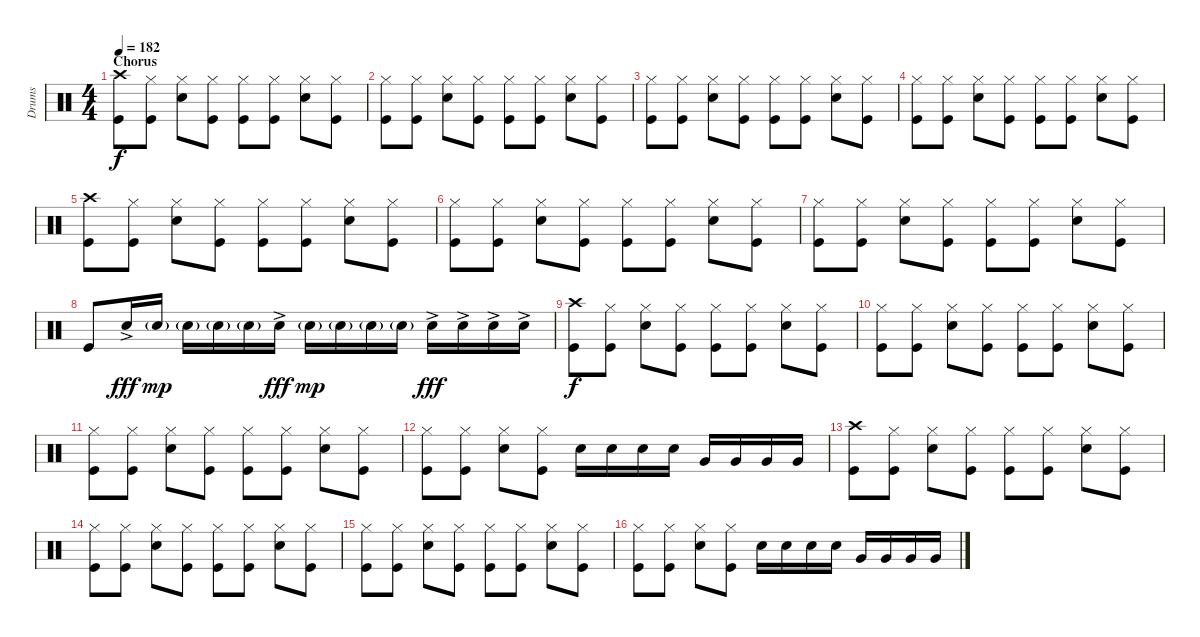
\track ("Drums" "Drums") {instrument percussion}
\staff {score}
\articulation defaults
\ts (4 4)
\section ("" "Chorus")
\tempo 182
\clef neutral
\ks c
("Crash high (hit)" "Kick (hit)").8{dy f} ("Hi-Hat (closed)" "Kick (hit)").8 ("Hi-Hat (closed)" "Snare (hit) 2").8 ("Hi-Hat (closed)" "Kick (hit)").8 ("Hi-Hat (closed)" "Kick (hit)").8 ("Hi-Hat (closed)" "Kick (hit)").8 ("Hi-Hat (closed)" "Snare (hit) 2").8 ("Hi-Hat (closed)" "Kick (hit)").8 |
("Hi-Hat (closed)" "Kick (hit)").8 ("Hi-Hat (closed)" "Kick (hit)").8 ("Hi-Hat (closed)" "Snare (hit) 2").8 ("Hi-Hat (closed)" "Kick (hit)").8 ("Hi-Hat (closed)" "Kick (hit)").8 ("Hi-Hat (closed)" "Kick (hit)").8 ("Hi-Hat (closed)" "Snare (hit) 2").8 ("Hi-Hat (closed)" "Kick (hit)").8 |
("Hi-Hat (closed)" "Kick (hit)").8 ("Hi-Hat (closed)" "Kick (hit)").8 ("Hi-Hat (closed)" "Snare (hit) 2").8 ("Hi-Hat (closed)" "Kick (hit)").8 ("Hi-Hat (closed)" "Kick (hit)").8 ("Hi-Hat (closed)" "Kick (hit)").8 ("Hi-Hat (closed)" "Snare (hit) 2").8 ("Hi-Hat (closed)" "Kick (hit)").8 |
("Hi-Hat (closed)" "Kick (hit)").8 ("Hi-Hat (closed)" "Kick (hit)").8 ("Hi-Hat (closed)" "Snare (hit) 2").8 ("Hi-Hat (closed)" "Kick (hit)").8 ("Hi-Hat (closed)" "Kick (hit)").8 ("Hi-Hat (closed)" "Kick (hit)").8 ("Hi-Hat (closed)" "Snare (hit) 2").8 ("Hi-Hat (closed)" "Kick (hit)").8 |
("Crash high (hit)" "Kick (hit)").8 ("Hi-Hat (closed)" "Kick (hit)").8 ("Hi-Hat (closed)" "Snare (hit) 2").8 ("Hi-Hat (closed)" "Kick (hit)").8 ("Hi-Hat (closed)" "Kick (hit)").8 ("Hi-Hat (closed)" "Kick (hit)").8 ("Hi-Hat (closed)" "Snare (hit) 2").8 ("Hi-Hat (closed)" "Kick (hit)").8 |
("Hi-Hat (closed)" "Kick (hit)").8 ("Hi-Hat (closed)" "Kick (hit)").8 ("Hi-Hat (closed)" "Snare (hit) 2").8 ("Hi-Hat (closed)" "Kick (hit)").8 ("Hi-Hat (closed)" "Kick (hit)").8 ("Hi-Hat (closed)" "Kick (hit)").8 ("Hi-Hat (closed)" "Snare (hit) 2").8 ("Hi-Hat (closed)" "Kick (hit)").8 |
("Hi-Hat (closed)" "Kick (hit)").8 ("Hi-Hat (closed)" "Kick (hit)").8 ("Hi-Hat (closed)" "Snare (hit) 2").8 ("Hi-Hat (closed)" "Kick (hit)").8 ("Hi-Hat (closed)" "Kick (hit)").8 ("Hi-Hat (closed)" "Kick (hit)").8 ("Hi-Hat (closed)" "Snare (hit) 2").8 ("Hi-Hat (closed)" "Kick (hit)").8 |
"Kick (hit)".8 "Snare (hit) 2"{ac}.16{dy fff} "Snare (hit) 2"{g}.16{dy mp} "Snare (hit) 2"{g}.16 "Snare (hit) 2"{g}.16 "Snare (hit) 2"{g}.16 "Snare (hit) 2"{ac}.16{dy fff} "Snare (hit) 2"{g}.16{dy mp} "Snare (hit) 2"{g}.16 "Snare (hit) 2"{g}.16 "Snare (hit) 2"{g}.16 "Snare (hit) 2"{ac}.16{dy fff} "Snare (hit) 2"{ac}.16 "Snare (hit) 2"{ac}.16 "Snare (hit) 2"{ac}.16 |
("Crash high (hit)" "Kick (hit)").8{dy f} ("Hi-Hat (closed)" "Kick (hit)").8 ("Hi-Hat (closed)" "Snare (hit) 2").8 ("Hi-Hat (closed)" "Kick (hit)").8 ("Hi-Hat (closed)" "Kick (hit)").8 ("Hi-Hat (closed)" "Kick (hit)").8 ("Hi-Hat (closed)" "Snare (hit) 2").8 ("Hi-Hat (closed)" "Kick (hit)").8 |
("Hi-Hat (closed)" "Kick (hit)").8 ("Hi-Hat (closed)" "Kick (hit)").8 ("Hi-Hat (closed)" "Snare (hit) 2").8 ("Hi-Hat (closed)" "Kick (hit)").8 ("Hi-Hat (closed)" "Kick (hit)").8 ("Hi-Hat (closed)" "Kick (hit)").8 ("Hi-Hat (closed)" "Snare (hit) 2").8 ("Hi-Hat (closed)" "Kick (hit)").8 |
("Hi-Hat (closed)" "Kick (hit)").8 ("Hi-Hat (closed)" "Kick (hit)").8 ("Hi-Hat (closed)" "Snare (hit) 2").8 ("Hi-Hat (closed)" "Kick (hit)").8 ("Hi-Hat (closed)" "Kick (hit)").8 ("Hi-Hat (closed)" "Kick (hit)").8 ("Hi-Hat (closed)" "Snare (hit) 2").8 ("Hi-Hat (closed)" "Kick (hit)").8 |
("Hi-Hat (closed)" "Kick (hit)").8 ("Hi-Hat (closed)" "Kick (hit)").8 ("Hi-Hat (closed)" "Snare (hit) 2").8 ("Hi-Hat (closed)" "Kick (hit)").8 "Snare (hit) 2".16 "Snare (hit) 2".16 "Snare (hit) 2".16 "Snare (hit) 2".16 "Very Low Tom (hit)".16 "Very Low Tom (hit)".16 "Very Low Tom (hit)".16 "Very Low Tom (hit)".16 |
("Crash high (hit)" "Kick (hit)").8 ("Hi-Hat (closed)" "Kick (hit)").8 ("Hi-Hat (closed)" "Snare (hit) 2").8 ("Hi-Hat (closed)" "Kick (hit)").8 ("Hi-Hat (closed)" "Kick (hit)").8 ("Hi-Hat (closed)" "Kick (hit)").8 ("Hi-Hat (closed)" "Snare (hit) 2").8 ("Hi-Hat (closed)" "Kick (hit)").8 |
("Hi-Hat (closed)" "Kick (hit)").8 ("Hi-Hat (closed)" "Kick (hit)").8 ("Hi-Hat (closed)" "Snare (hit) 2").8 ("Hi-Hat (closed)" "Kick (hit)").8 ("Hi-Hat (closed)" "Kick (hit)").8 ("Hi-Hat (closed)" "Kick (hit)").8 ("Hi-Hat (closed)" "Snare (hit) 2").8 ("Hi-Hat (closed)" "Kick (hit)").8 |
("Hi-Hat (closed)" "Kick (hit)").8 ("Hi-Hat (closed)" "Kick (hit)").8 ("Hi-Hat (closed)" "Snare (hit) 2").8 ("Hi-Hat (closed)" "Kick (hit)").8 ("Hi-Hat (closed)" "Kick (hit)").8 ("Hi-Hat (closed)" "Kick (hit)").8 ("Hi-Hat (closed)" "Snare (hit) 2").8 ("Hi-Hat (closed)" "Kick (hit)").8 |
("Hi-Hat (closed)" "Kick (hit)").8 ("Hi-Hat (closed)" "Kick (hit)").8 ("Hi-Hat (closed)" "Snare (hit) 2").8 ("Hi-Hat (closed)" "Kick (hit)").8 "Snare (hit) 2".16 "Snare (hit) 2".16 "Snare (hit) 2".16 "Snare (hit) 2".16 "Very Low Tom (hit)".16 "Very Low Tom (hit)".16 "Very Low Tom (hit)".16 "Very Low Tom (hit)".16
